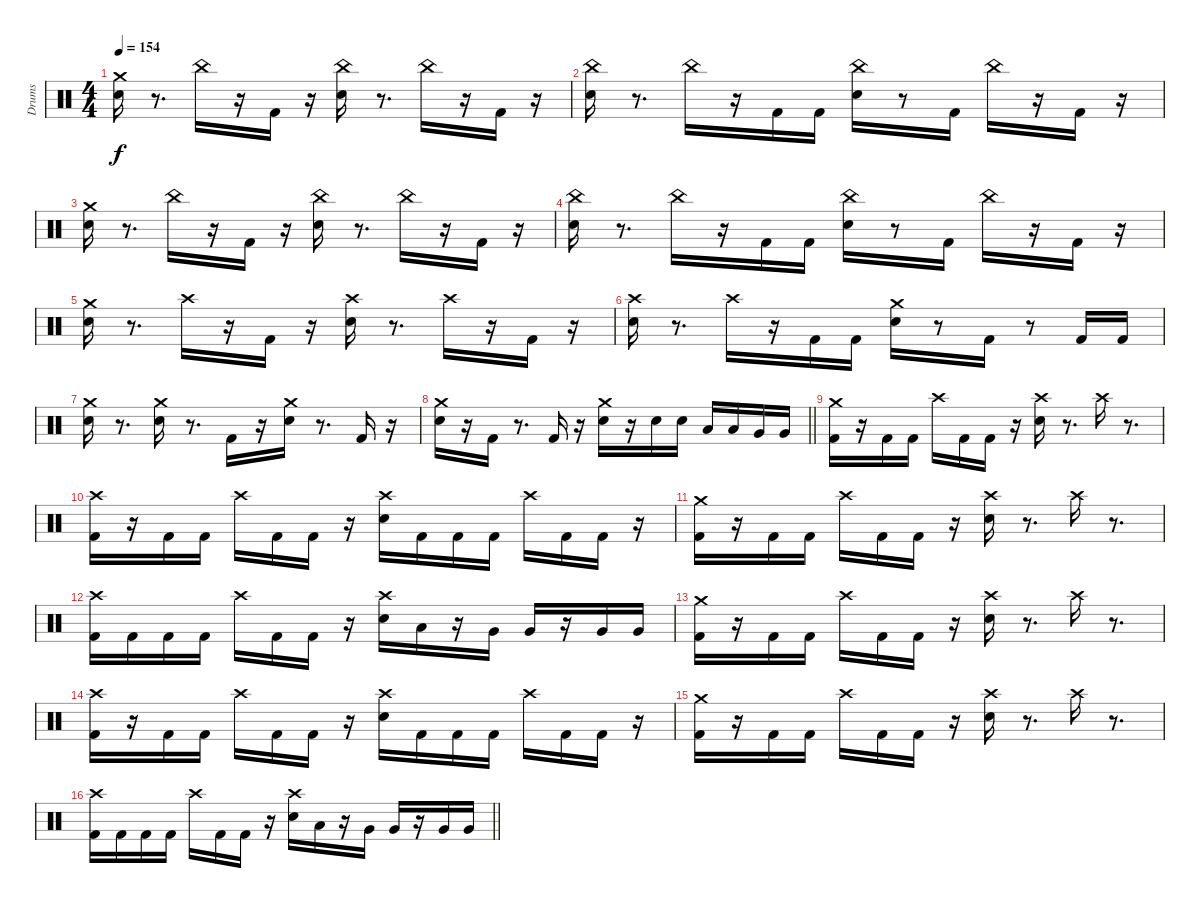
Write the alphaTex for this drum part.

\track ("Drums" "Drums") {instrument percussion}
\staff {score}
\articulation defaults
\ts (4 4)
\tempo 154
\clef neutral
\ks c
("Snare (hit) 2" "Crash medium (hit)").16{dy f} r.8{d} "China (hit)".16 r.16 "Kick (hit) 2".16 r.16 ("Snare (hit) 2" "China (hit)").16 r.8{d} "China (hit)".16 r.16 "Kick (hit) 2".16 r.16 |
("Snare (hit) 2" "China (hit)").16 r.8{d} "China (hit)".16 r.16 "Kick (hit) 2".16 "Kick (hit) 2".16 ("Snare (hit) 2" "China (hit)").16 r.8 "Kick (hit) 2".16 "China (hit)".16 r.16 "Kick (hit) 2".16 r.16 |
("Snare (hit) 2" "Crash medium (hit)").16 r.8{d} "China (hit)".16 r.16 "Kick (hit) 2".16 r.16 ("Snare (hit) 2" "China (hit)").16 r.8{d} "China (hit)".16 r.16 "Kick (hit) 2".16 r.16 |
("Snare (hit) 2" "China (hit)").16 r.8{d} "China (hit)".16 r.16 "Kick (hit) 2".16 "Kick (hit) 2".16 ("Snare (hit) 2" "China (hit)").16 r.8 "Kick (hit) 2".16 "China (hit)".16 r.16 "Kick (hit) 2".16 r.16 |
("Snare (hit) 2" "Crash medium (hit)").16 r.8{d} "Crash high (hit)".16 r.16 "Kick (hit) 2".16 r.16 ("Snare (hit) 2" "Crash high (hit)").16 r.8{d} "Crash high (hit)".16 r.16 "Kick (hit) 2".16 r.16 |
("Snare (hit) 2" "Crash high (hit)").16 r.8{d} "Crash high (hit)".16 r.16 "Kick (hit) 2".16 "Kick (hit) 2".16 ("Snare (hit) 2" "Crash medium (hit)").16 r.8 "Kick (hit) 2".16 r.8 "Kick (hit) 2".16 "Kick (hit) 2".16 |
("Snare (hit) 2" "Crash medium (hit)").16 r.8{d} ("Snare (hit) 2" "Crash medium (hit)").16 r.8{d} "Kick (hit) 2".16 r.16 ("Snare (hit) 2" "Crash medium (hit)").16 r.8{d} "Kick (hit) 2".16 r.16 |
\barLineRight lightlight
("Snare (hit) 2" "Crash medium (hit)").16 r.16 "Kick (hit) 2".16 r.8{d} "Kick (hit) 2".16 r.16 ("Snare (hit) 2" "Crash medium (hit)").16 r.16 "Snare (hit) 2".16 "Snare (hit) 2".16 "Low Tom (hit)".16 "Low Tom (hit)".16 "Very Low Tom (hit)".16 "Very Low Tom (hit)".16 |
\section ("" " ")
("Kick (hit) 2" "Crash medium (hit)").16 r.16 "Kick (hit) 2".16 "Kick (hit) 2".16 "Crash high (hit)".16 "Kick (hit) 2".16 "Kick (hit) 2".16 r.16 ("Snare (hit) 2" "Crash high (hit)").16 r.8{d} "Crash high (hit)".16 r.8{d} |
("Kick (hit) 2" "Crash high (hit)").16 r.16 "Kick (hit) 2".16 "Kick (hit) 2".16 "Crash high (hit)".16 "Kick (hit) 2".16 "Kick (hit) 2".16 r.16 ("Snare (hit) 2" "Crash high (hit)").16 "Kick (hit) 2".16 "Kick (hit) 2".16 "Kick (hit) 2".16 "Crash high (hit)".16 "Kick (hit) 2".16 "Kick (hit) 2".16 r.16 |
("Kick (hit) 2" "Crash medium (hit)").16 r.16 "Kick (hit) 2".16 "Kick (hit) 2".16 "Crash high (hit)".16 "Kick (hit) 2".16 "Kick (hit) 2".16 r.16 ("Snare (hit) 2" "Crash high (hit)").16 r.8{d} "Crash high (hit)".16 r.8{d} |
("Kick (hit) 2" "Crash high (hit)").16 "Kick (hit) 2".16 "Kick (hit) 2".16 "Kick (hit) 2".16 "Crash high (hit)".16 "Kick (hit) 2".16 "Kick (hit) 2".16 r.16 ("Snare (hit) 2" "Crash high (hit)").16 "Low Tom (hit)".16 r.16 "Very Low Tom (hit)".16 "Very Low Tom (hit)".16 r.16 "Very Low Tom (hit)".16 "Very Low Tom (hit)".16 |
("Kick (hit) 2" "Crash medium (hit)").16 r.16 "Kick (hit) 2".16 "Kick (hit) 2".16 "Crash high (hit)".16 "Kick (hit) 2".16 "Kick (hit) 2".16 r.16 ("Snare (hit) 2" "Crash high (hit)").16 r.8{d} "Crash high (hit)".16 r.8{d} |
("Kick (hit) 2" "Crash high (hit)").16 r.16 "Kick (hit) 2".16 "Kick (hit) 2".16 "Crash high (hit)".16 "Kick (hit) 2".16 "Kick (hit) 2".16 r.16 ("Snare (hit) 2" "Crash high (hit)").16 "Kick (hit) 2".16 "Kick (hit) 2".16 "Kick (hit) 2".16 "Crash high (hit)".16 "Kick (hit) 2".16 "Kick (hit) 2".16 r.16 |
("Kick (hit) 2" "Crash medium (hit)").16 r.16 "Kick (hit) 2".16 "Kick (hit) 2".16 "Crash high (hit)".16 "Kick (hit) 2".16 "Kick (hit) 2".16 r.16 ("Snare (hit) 2" "Crash high (hit)").16 r.8{d} "Crash high (hit)".16 r.8{d} |
\barLineRight lightlight
("Kick (hit) 2" "Crash high (hit)").16 "Kick (hit) 2".16 "Kick (hit) 2".16 "Kick (hit) 2".16 "Crash high (hit)".16 "Kick (hit) 2".16 "Kick (hit) 2".16 r.16 ("Snare (hit) 2" "Crash high (hit)").16 "Low Tom (hit)".16 r.16 "Very Low Tom (hit)".16 "Very Low Tom (hit)".16 r.16 "Very Low Tom (hit)".16 "Very Low Tom (hit)".16
